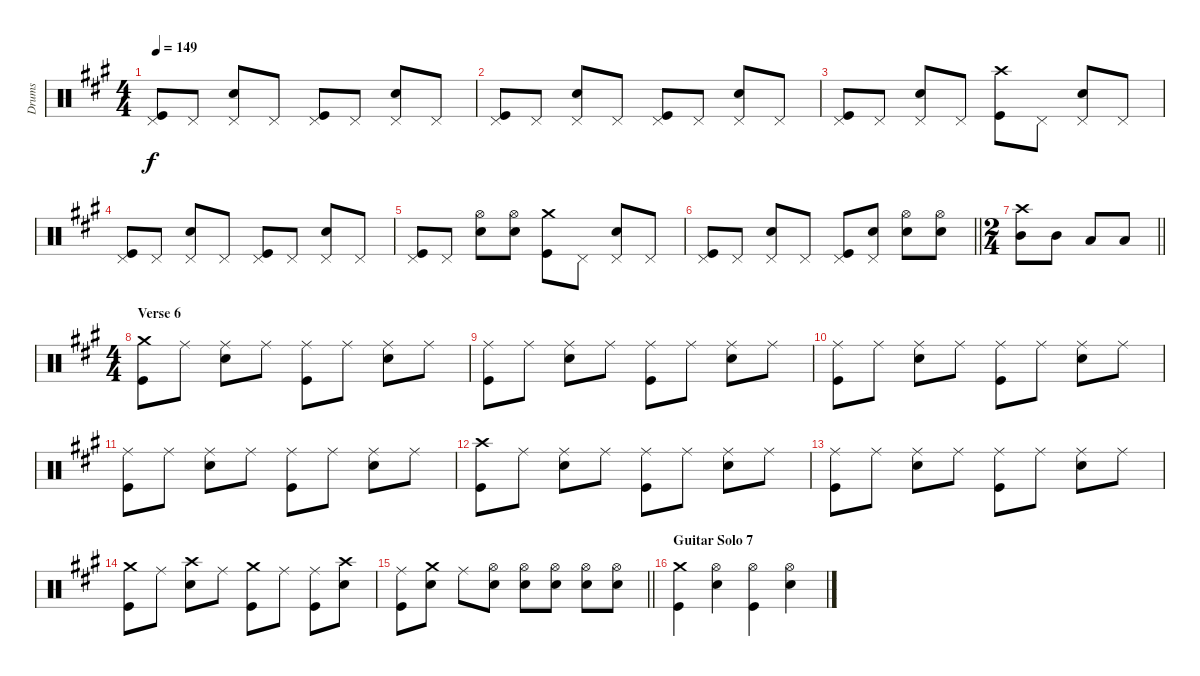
\track ("Drums" "Drums") {instrument percussion}
\staff {score}
\articulation defaults
\ts (4 4)
\tempo 149
\clef neutral
\ks f#minor
("Pedal Hi-Hat (hit)" "Kick (hit)").8{dy f} "Pedal Hi-Hat (hit)".8 ("Pedal Hi-Hat (hit)" "Snare (hit) 2").8 "Pedal Hi-Hat (hit)".8 ("Pedal Hi-Hat (hit)" "Kick (hit)").8 "Pedal Hi-Hat (hit)".8 ("Pedal Hi-Hat (hit)" "Snare (hit) 2").8 "Pedal Hi-Hat (hit)".8 |
("Pedal Hi-Hat (hit)" "Kick (hit)").8 "Pedal Hi-Hat (hit)".8 ("Pedal Hi-Hat (hit)" "Snare (hit) 2").8 "Pedal Hi-Hat (hit)".8 ("Pedal Hi-Hat (hit)" "Kick (hit)").8 "Pedal Hi-Hat (hit)".8 ("Pedal Hi-Hat (hit)" "Snare (hit) 2").8 "Pedal Hi-Hat (hit)".8 |
("Pedal Hi-Hat (hit)" "Kick (hit)").8 "Pedal Hi-Hat (hit)".8 ("Pedal Hi-Hat (hit)" "Snare (hit) 2").8 "Pedal Hi-Hat (hit)".8 ("Crash high (hit)" "Kick (hit)").8 "Pedal Hi-Hat (hit)".8 ("Pedal Hi-Hat (hit)" "Snare (hit) 2").8 "Pedal Hi-Hat (hit)".8 |
("Pedal Hi-Hat (hit)" "Kick (hit)").8 "Pedal Hi-Hat (hit)".8 ("Pedal Hi-Hat (hit)" "Snare (hit) 2").8 "Pedal Hi-Hat (hit)".8 ("Pedal Hi-Hat (hit)" "Kick (hit)").8 "Pedal Hi-Hat (hit)".8 ("Pedal Hi-Hat (hit)" "Snare (hit) 2").8 "Pedal Hi-Hat (hit)".8 |
("Pedal Hi-Hat (hit)" "Kick (hit)").8 "Pedal Hi-Hat (hit)".8 ("Hi-Hat (open)" "Snare (hit) 2").8 ("Hi-Hat (open)" "Snare (hit) 2").8 ("Crash medium (hit)" "Kick (hit)").8 "Pedal Hi-Hat (hit)".8 ("Pedal Hi-Hat (hit)" "Snare (hit) 2").8 "Pedal Hi-Hat (hit)".8 |
\barLineRight lightlight
("Pedal Hi-Hat (hit)" "Kick (hit)").8 "Pedal Hi-Hat (hit)".8 ("Pedal Hi-Hat (hit)" "Snare (hit) 2").8 "Pedal Hi-Hat (hit)".8 ("Pedal Hi-Hat (hit)" "Kick (hit)").8 ("Pedal Hi-Hat (hit)" "Snare (hit) 2").8 ("Hi-Hat (open)" "Snare (hit) 2").8 ("Hi-Hat (open)" "Snare (hit) 2").8 |
\ts (2 4)
\barLineRight lightlight
("Crash high (hit)" "Mid Tom (hit)").8 "Mid Tom (hit)".8 "Low Tom (hit)".8 "Low Tom (hit)".8 |
\ts (4 4)
\section ("" "Verse 6")
("Crash medium (hit)" "Kick (hit)").8 "Ride (middle)".8 ("Ride (middle)" "Snare (hit) 2").8 "Ride (middle)".8 ("Ride (middle)" "Kick (hit)").8 "Ride (middle)".8 ("Ride (middle)" "Snare (hit) 2").8 "Ride (middle)".8 |
("Ride (middle)" "Kick (hit)").8 "Ride (middle)".8 ("Ride (middle)" "Snare (hit) 2").8 "Ride (middle)".8 ("Ride (middle)" "Kick (hit)").8 "Ride (middle)".8 ("Ride (middle)" "Snare (hit) 2").8 "Ride (middle)".8 |
("Ride (middle)" "Kick (hit)").8 "Ride (middle)".8 ("Ride (middle)" "Snare (hit) 2").8 "Ride (middle)".8 ("Ride (middle)" "Kick (hit)").8 "Ride (middle)".8 ("Ride (middle)" "Snare (hit) 2").8 "Ride (middle)".8 |
("Ride (middle)" "Kick (hit)").8 "Ride (middle)".8 ("Ride (middle)" "Snare (hit) 2").8 "Ride (middle)".8 ("Ride (middle)" "Kick (hit)").8 "Ride (middle)".8 ("Ride (middle)" "Snare (hit) 2").8 "Ride (middle)".8 |
("Crash high (hit)" "Kick (hit)").8 "Ride (middle)".8 ("Ride (middle)" "Snare (hit) 2").8 "Ride (middle)".8 ("Ride (middle)" "Kick (hit)").8 "Ride (middle)".8 ("Ride (middle)" "Snare (hit) 2").8 "Ride (middle)".8 |
("Ride (middle)" "Kick (hit)").8 "Ride (middle)".8 ("Ride (middle)" "Snare (hit) 2").8 "Ride (middle)".8 ("Ride (middle)" "Kick (hit)").8 "Ride (middle)".8 ("Ride (middle)" "Snare (hit) 2").8 "Ride (middle)".8 |
("Crash medium (hit)" "Kick (hit)").8 "Ride (middle)".8 ("Crash high (hit)" "Snare (hit) 2").8 "Ride (middle)".8 ("Crash medium (hit)" "Kick (hit)").8 "Ride (middle)".8 ("Ride (middle)" "Kick (hit)").8 ("Crash high (hit)" "Snare (hit) 2").8 |
\barLineRight lightlight
("Ride (middle)" "Kick (hit)").8 ("Crash medium (hit)" "Snare (hit) 2").8 "Ride (middle)".8 ("Hi-Hat (open)" "Snare (hit) 2").8 ("Hi-Hat (open)" "Snare (hit) 2").8 ("Hi-Hat (open)" "Snare (hit) 2").8 ("Hi-Hat (open)" "Snare (hit) 2").8 ("Hi-Hat (open)" "Snare (hit) 2").8 |
\section ("" "Guitar Solo 7")
("Crash medium (hit)" "Kick (hit)").4 ("Hi-Hat (open)" "Snare (hit) 2").4 ("Hi-Hat (open)" "Kick (hit)").4 ("Hi-Hat (open)" "Snare (hit) 2").4
